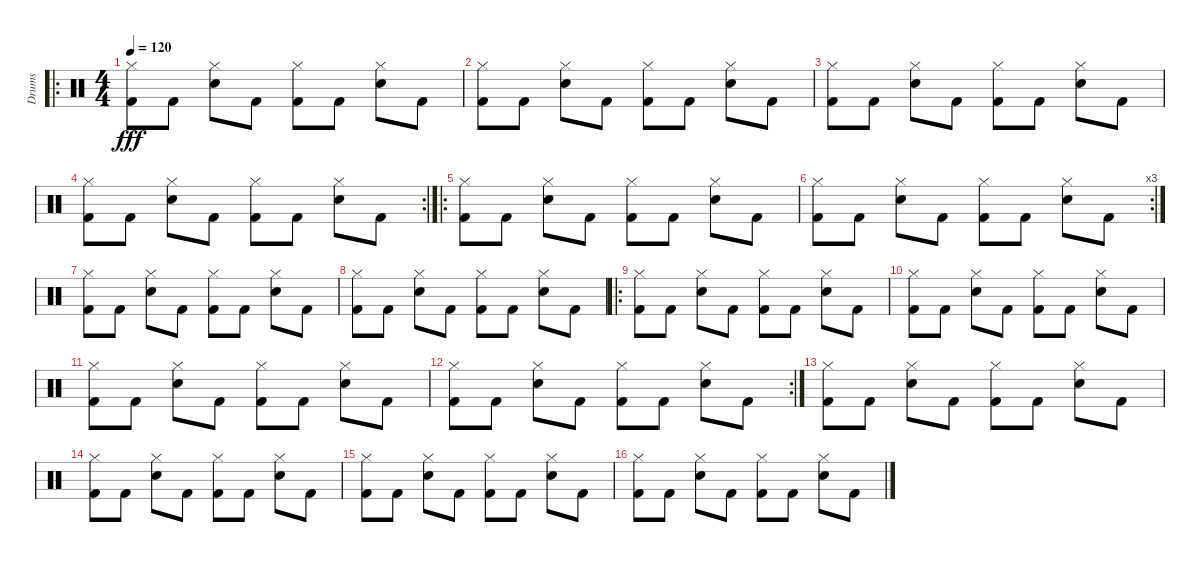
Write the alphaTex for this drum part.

\track ("Drums" "Drums") {instrument percussion}
\staff {score}
\articulation defaults
\ro
\ts (4 4)
\tempo 120
\clef neutral
\ks c
("Kick (hit) 2" "Hi-Hat (closed)").8{dy fff} "Kick (hit) 2".8 ("Hi-Hat (closed)" "Snare (hit) 2").8 "Kick (hit) 2".8 ("Kick (hit) 2" "Hi-Hat (closed)").8 "Kick (hit) 2".8 ("Hi-Hat (closed)" "Snare (hit) 2").8 "Kick (hit) 2".8 |
("Kick (hit) 2" "Hi-Hat (closed)").8 "Kick (hit) 2".8 ("Hi-Hat (closed)" "Snare (hit) 2").8 "Kick (hit) 2".8 ("Kick (hit) 2" "Hi-Hat (closed)").8 "Kick (hit) 2".8 ("Hi-Hat (closed)" "Snare (hit) 2").8 "Kick (hit) 2".8 |
("Kick (hit) 2" "Hi-Hat (closed)").8 "Kick (hit) 2".8 ("Hi-Hat (closed)" "Snare (hit) 2").8 "Kick (hit) 2".8 ("Kick (hit) 2" "Hi-Hat (closed)").8 "Kick (hit) 2".8 ("Hi-Hat (closed)" "Snare (hit) 2").8 "Kick (hit) 2".8 |
\rc 2
("Kick (hit) 2" "Hi-Hat (closed)").8 "Kick (hit) 2".8 ("Hi-Hat (closed)" "Snare (hit) 2").8 "Kick (hit) 2".8 ("Kick (hit) 2" "Hi-Hat (closed)").8 "Kick (hit) 2".8 ("Hi-Hat (closed)" "Snare (hit) 2").8 "Kick (hit) 2".8 |
\ro
("Kick (hit) 2" "Hi-Hat (closed)").8 "Kick (hit) 2".8 ("Hi-Hat (closed)" "Snare (hit) 2").8 "Kick (hit) 2".8 ("Kick (hit) 2" "Hi-Hat (closed)").8 "Kick (hit) 2".8 ("Hi-Hat (closed)" "Snare (hit) 2").8 "Kick (hit) 2".8 |
\rc 3
("Kick (hit) 2" "Hi-Hat (closed)").8 "Kick (hit) 2".8 ("Hi-Hat (closed)" "Snare (hit) 2").8 "Kick (hit) 2".8 ("Kick (hit) 2" "Hi-Hat (closed)").8 "Kick (hit) 2".8 ("Hi-Hat (closed)" "Snare (hit) 2").8 "Kick (hit) 2".8 |
("Kick (hit) 2" "Hi-Hat (closed)").8 "Kick (hit) 2".8 ("Hi-Hat (closed)" "Snare (hit) 2").8 "Kick (hit) 2".8 ("Kick (hit) 2" "Hi-Hat (closed)").8 "Kick (hit) 2".8 ("Hi-Hat (closed)" "Snare (hit) 2").8 "Kick (hit) 2".8 |
("Kick (hit) 2" "Hi-Hat (closed)").8 "Kick (hit) 2".8 ("Hi-Hat (closed)" "Snare (hit) 2").8 "Kick (hit) 2".8 ("Kick (hit) 2" "Hi-Hat (closed)").8 "Kick (hit) 2".8 ("Hi-Hat (closed)" "Snare (hit) 2").8 "Kick (hit) 2".8 |
\ro
("Kick (hit) 2" "Hi-Hat (closed)").8 "Kick (hit) 2".8 ("Hi-Hat (closed)" "Snare (hit) 2").8 "Kick (hit) 2".8 ("Kick (hit) 2" "Hi-Hat (closed)").8 "Kick (hit) 2".8 ("Hi-Hat (closed)" "Snare (hit) 2").8 "Kick (hit) 2".8 |
("Kick (hit) 2" "Hi-Hat (closed)").8 "Kick (hit) 2".8 ("Hi-Hat (closed)" "Snare (hit) 2").8 "Kick (hit) 2".8 ("Kick (hit) 2" "Hi-Hat (closed)").8 "Kick (hit) 2".8 ("Hi-Hat (closed)" "Snare (hit) 2").8 "Kick (hit) 2".8 |
("Kick (hit) 2" "Hi-Hat (closed)").8 "Kick (hit) 2".8 ("Hi-Hat (closed)" "Snare (hit) 2").8 "Kick (hit) 2".8 ("Kick (hit) 2" "Hi-Hat (closed)").8 "Kick (hit) 2".8 ("Hi-Hat (closed)" "Snare (hit) 2").8 "Kick (hit) 2".8 |
\rc 2
("Kick (hit) 2" "Hi-Hat (closed)").8 "Kick (hit) 2".8 ("Hi-Hat (closed)" "Snare (hit) 2").8 "Kick (hit) 2".8 ("Kick (hit) 2" "Hi-Hat (closed)").8 "Kick (hit) 2".8 ("Hi-Hat (closed)" "Snare (hit) 2").8 "Kick (hit) 2".8 |
("Kick (hit) 2" "Hi-Hat (closed)").8 "Kick (hit) 2".8 ("Hi-Hat (closed)" "Snare (hit) 2").8 "Kick (hit) 2".8 ("Kick (hit) 2" "Hi-Hat (closed)").8 "Kick (hit) 2".8 ("Hi-Hat (closed)" "Snare (hit) 2").8 "Kick (hit) 2".8 |
("Kick (hit) 2" "Hi-Hat (closed)").8 "Kick (hit) 2".8 ("Hi-Hat (closed)" "Snare (hit) 2").8 "Kick (hit) 2".8 ("Kick (hit) 2" "Hi-Hat (closed)").8 "Kick (hit) 2".8 ("Hi-Hat (closed)" "Snare (hit) 2").8 "Kick (hit) 2".8 |
("Kick (hit) 2" "Hi-Hat (closed)").8 "Kick (hit) 2".8 ("Hi-Hat (closed)" "Snare (hit) 2").8 "Kick (hit) 2".8 ("Kick (hit) 2" "Hi-Hat (closed)").8 "Kick (hit) 2".8 ("Hi-Hat (closed)" "Snare (hit) 2").8 "Kick (hit) 2".8 |
("Kick (hit) 2" "Hi-Hat (closed)").8 "Kick (hit) 2".8 ("Hi-Hat (closed)" "Snare (hit) 2").8 "Kick (hit) 2".8 ("Kick (hit) 2" "Hi-Hat (closed)").8 "Kick (hit) 2".8 ("Hi-Hat (closed)" "Snare (hit) 2").8 "Kick (hit) 2".8
